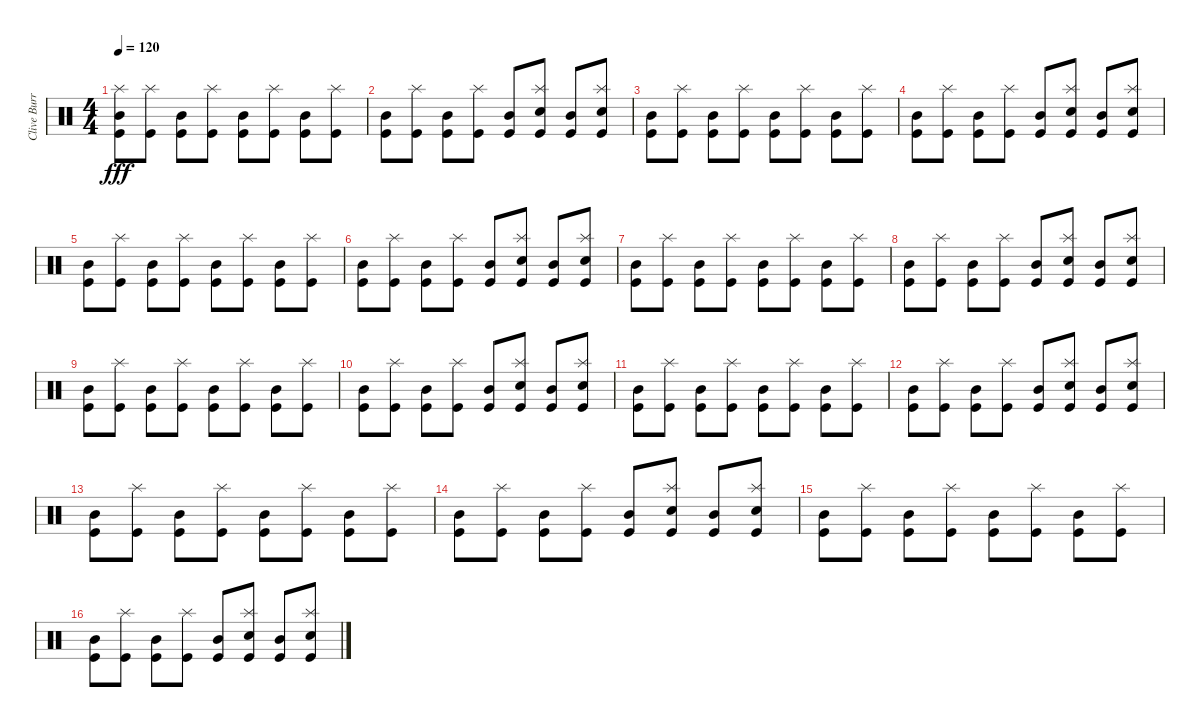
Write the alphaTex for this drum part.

\track ("Clive Burr" "Clive Burr") {instrument percussion}
\staff {score}
\articulation defaults
\ts (4 4)
\tempo 120
\clef neutral
\ks c
("Kick (hit)" "Mid Tom (hit)" "Splash (hit)").8{dy fff} ("Kick (hit)" "Splash (hit)").8 ("Kick (hit)" "Mid Tom (hit)").8 ("Kick (hit)" "Splash (hit)").8 ("Kick (hit)" "Mid Tom (hit)").8 ("Kick (hit)" "Splash (hit)").8 ("Kick (hit)" "Mid Tom (hit)").8 ("Kick (hit)" "Splash (hit)").8 |
("Kick (hit)" "Mid Tom (hit)").8 ("Kick (hit)" "Splash (hit)").8 ("Kick (hit)" "Mid Tom (hit)").8 ("Kick (hit)" "Splash (hit)").8 ("Kick (hit)" "Mid Tom (hit)").8 ("Kick (hit)" "Splash (hit)" "Electric Snare (hit)").8 ("Kick (hit)" "Mid Tom (hit)").8 ("Kick (hit)" "Splash (hit)" "Electric Snare (hit)").8 |
("Kick (hit)" "Mid Tom (hit)").8 ("Kick (hit)" "Splash (hit)").8 ("Kick (hit)" "Mid Tom (hit)").8 ("Kick (hit)" "Splash (hit)").8 ("Kick (hit)" "Mid Tom (hit)").8 ("Kick (hit)" "Splash (hit)").8 ("Kick (hit)" "Mid Tom (hit)").8 ("Kick (hit)" "Splash (hit)").8 |
("Kick (hit)" "Mid Tom (hit)").8 ("Kick (hit)" "Splash (hit)").8 ("Kick (hit)" "Mid Tom (hit)").8 ("Kick (hit)" "Splash (hit)").8 ("Kick (hit)" "Mid Tom (hit)").8 ("Kick (hit)" "Splash (hit)" "Electric Snare (hit)").8 ("Kick (hit)" "Mid Tom (hit)").8 ("Kick (hit)" "Splash (hit)" "Electric Snare (hit)").8 |
("Kick (hit)" "Mid Tom (hit)").8 ("Kick (hit)" "Splash (hit)").8 ("Kick (hit)" "Mid Tom (hit)").8 ("Kick (hit)" "Splash (hit)").8 ("Kick (hit)" "Mid Tom (hit)").8 ("Kick (hit)" "Splash (hit)").8 ("Kick (hit)" "Mid Tom (hit)").8 ("Kick (hit)" "Splash (hit)").8 |
("Kick (hit)" "Mid Tom (hit)").8 ("Kick (hit)" "Splash (hit)").8 ("Kick (hit)" "Mid Tom (hit)").8 ("Kick (hit)" "Splash (hit)").8 ("Kick (hit)" "Mid Tom (hit)").8 ("Kick (hit)" "Splash (hit)" "Electric Snare (hit)").8 ("Kick (hit)" "Mid Tom (hit)").8 ("Kick (hit)" "Splash (hit)" "Electric Snare (hit)").8 |
("Kick (hit)" "Mid Tom (hit)").8 ("Kick (hit)" "Splash (hit)").8 ("Kick (hit)" "Mid Tom (hit)").8 ("Kick (hit)" "Splash (hit)").8 ("Kick (hit)" "Mid Tom (hit)").8 ("Kick (hit)" "Splash (hit)").8 ("Kick (hit)" "Mid Tom (hit)").8 ("Kick (hit)" "Splash (hit)").8 |
("Kick (hit)" "Mid Tom (hit)").8 ("Kick (hit)" "Splash (hit)").8 ("Kick (hit)" "Mid Tom (hit)").8 ("Kick (hit)" "Splash (hit)").8 ("Kick (hit)" "Mid Tom (hit)").8 ("Kick (hit)" "Splash (hit)" "Electric Snare (hit)").8 ("Kick (hit)" "Mid Tom (hit)").8 ("Kick (hit)" "Splash (hit)" "Electric Snare (hit)").8 |
("Kick (hit)" "Mid Tom (hit)").8 ("Kick (hit)" "Splash (hit)").8 ("Kick (hit)" "Mid Tom (hit)").8 ("Kick (hit)" "Splash (hit)").8 ("Kick (hit)" "Mid Tom (hit)").8 ("Kick (hit)" "Splash (hit)").8 ("Kick (hit)" "Mid Tom (hit)").8 ("Kick (hit)" "Splash (hit)").8 |
("Kick (hit)" "Mid Tom (hit)").8 ("Kick (hit)" "Splash (hit)").8 ("Kick (hit)" "Mid Tom (hit)").8 ("Kick (hit)" "Splash (hit)").8 ("Kick (hit)" "Mid Tom (hit)").8 ("Kick (hit)" "Splash (hit)" "Electric Snare (hit)").8 ("Kick (hit)" "Mid Tom (hit)").8 ("Kick (hit)" "Splash (hit)" "Electric Snare (hit)").8 |
("Kick (hit)" "Mid Tom (hit)").8 ("Kick (hit)" "Splash (hit)").8 ("Kick (hit)" "Mid Tom (hit)").8 ("Kick (hit)" "Splash (hit)").8 ("Kick (hit)" "Mid Tom (hit)").8 ("Kick (hit)" "Splash (hit)").8 ("Kick (hit)" "Mid Tom (hit)").8 ("Kick (hit)" "Splash (hit)").8 |
("Kick (hit)" "Mid Tom (hit)").8 ("Kick (hit)" "Splash (hit)").8 ("Kick (hit)" "Mid Tom (hit)").8 ("Kick (hit)" "Splash (hit)").8 ("Kick (hit)" "Mid Tom (hit)").8 ("Kick (hit)" "Splash (hit)" "Electric Snare (hit)").8 ("Kick (hit)" "Mid Tom (hit)").8 ("Kick (hit)" "Splash (hit)" "Electric Snare (hit)").8 |
("Kick (hit)" "Mid Tom (hit)").8 ("Kick (hit)" "Splash (hit)").8 ("Kick (hit)" "Mid Tom (hit)").8 ("Kick (hit)" "Splash (hit)").8 ("Kick (hit)" "Mid Tom (hit)").8 ("Kick (hit)" "Splash (hit)").8 ("Kick (hit)" "Mid Tom (hit)").8 ("Kick (hit)" "Splash (hit)").8 |
("Kick (hit)" "Mid Tom (hit)").8 ("Kick (hit)" "Splash (hit)").8 ("Kick (hit)" "Mid Tom (hit)").8 ("Kick (hit)" "Splash (hit)").8 ("Kick (hit)" "Mid Tom (hit)").8 ("Kick (hit)" "Splash (hit)" "Electric Snare (hit)").8 ("Kick (hit)" "Mid Tom (hit)").8 ("Kick (hit)" "Splash (hit)" "Electric Snare (hit)").8 |
("Kick (hit)" "Mid Tom (hit)").8 ("Kick (hit)" "Splash (hit)").8 ("Kick (hit)" "Mid Tom (hit)").8 ("Kick (hit)" "Splash (hit)").8 ("Kick (hit)" "Mid Tom (hit)").8 ("Kick (hit)" "Splash (hit)").8 ("Kick (hit)" "Mid Tom (hit)").8 ("Kick (hit)" "Splash (hit)").8 |
("Kick (hit)" "Mid Tom (hit)").8 ("Kick (hit)" "Splash (hit)").8 ("Kick (hit)" "Mid Tom (hit)").8 ("Kick (hit)" "Splash (hit)").8 ("Kick (hit)" "Mid Tom (hit)").8 ("Kick (hit)" "Splash (hit)" "Electric Snare (hit)").8 ("Kick (hit)" "Mid Tom (hit)").8 ("Kick (hit)" "Splash (hit)" "Electric Snare (hit)").8
